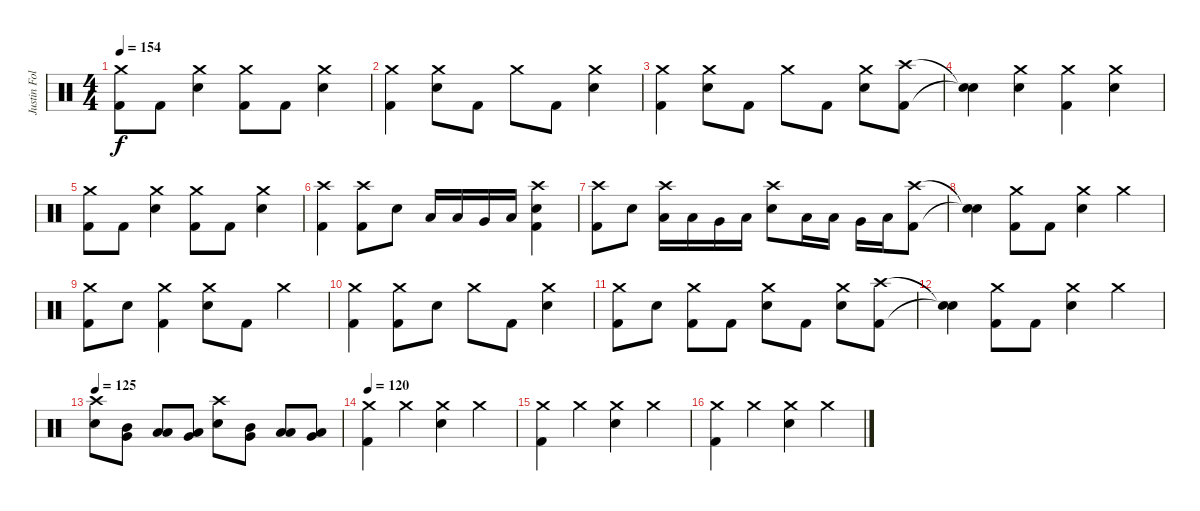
\track ("Justin Foley" "Justin Fol") {instrument percussion}
\staff {score}
\articulation defaults
\ts (4 4)
\tempo 154
\clef neutral
\ks c
("Crash medium (hit)" "Kick (hit) 2").8{dy f} "Kick (hit) 2".8 ("Crash medium (hit)" "Electric Snare (hit)").4 ("Crash medium (hit)" "Kick (hit) 2").8 "Kick (hit) 2".8 ("Crash medium (hit)" "Electric Snare (hit)").4 |
("Crash medium (hit)" "Kick (hit) 2").4 ("Crash medium (hit)" "Electric Snare (hit)").8 "Kick (hit) 2".8 "Crash medium (hit)".8 "Kick (hit) 2".8 ("Crash medium (hit)" "Electric Snare (hit)").4 |
("Crash medium (hit)" "Kick (hit) 2").4 ("Crash medium (hit)" "Electric Snare (hit)").8 "Kick (hit) 2".8 "Crash medium (hit)".8 "Kick (hit) 2".8 ("Crash medium (hit)" "Electric Snare (hit)").8 ("Crash high (hit)" "Kick (hit) 2").8 |
("Snare (hit)"{t} "Snare (hit)"{t}).4 ("Crash medium (hit)" "Electric Snare (hit)").4 ("Crash medium (hit)" "Kick (hit) 2").4 ("Crash medium (hit)" "Electric Snare (hit)").4 |
("Crash medium (hit)" "Kick (hit) 2").8 "Kick (hit) 2".8 ("Crash medium (hit)" "Electric Snare (hit)").4 ("Crash medium (hit)" "Kick (hit) 2").8 "Kick (hit) 2".8 ("Crash medium (hit)" "Electric Snare (hit)").4 |
("Crash high (hit)" "Kick (hit) 2").4 ("Crash high (hit)" "Kick (hit) 2").8 "Electric Snare (hit)".8 "Low Tom (hit)".16 "Low Tom (hit)".16 "Very Low Tom (hit)".16 "Low Floor Tom (hit)".16 ("Crash high (hit)" "Electric Snare (hit)" "Kick (hit) 2").4 |
("Crash high (hit)" "Kick (hit) 2").8 "Electric Snare (hit)".8 ("Crash high (hit)" "Low Tom (hit)").16 "Low Tom (hit)".16 "Very Low Tom (hit)".16 "Low Floor Tom (hit)".16 ("Crash high (hit)" "Electric Snare (hit)").8 "Low Tom (hit)".16 "Low Tom (hit)".16 "Very Low Tom (hit)".16 "Low Floor Tom (hit)".16 ("Crash high (hit)" "Kick (hit) 2").8 |
("Snare (hit)"{t} "Snare (hit)"{t}).4 ("Crash medium (hit)" "Kick (hit) 2").8 "Kick (hit) 2".8 ("Crash medium (hit)" "Electric Snare (hit)").4 "Crash medium (hit)".4 |
("Crash medium (hit)" "Kick (hit) 2").8 "Electric Snare (hit)".8 ("Crash medium (hit)" "Kick (hit) 2").4 ("Crash medium (hit)" "Electric Snare (hit)").8 "Kick (hit) 2".8 "Crash medium (hit)".4 |
("Crash medium (hit)" "Kick (hit) 2").4 ("Crash medium (hit)" "Kick (hit) 2").8 "Electric Snare (hit)".8 "Crash medium (hit)".8 "Kick (hit) 2".8 ("Crash medium (hit)" "Electric Snare (hit)").4 |
("Crash medium (hit)" "Kick (hit) 2").8 "Electric Snare (hit)".8 ("Crash medium (hit)" "Kick (hit) 2").8 "Kick (hit) 2".8 ("Crash medium (hit)" "Electric Snare (hit)").8 "Kick (hit) 2".8 ("Crash medium (hit)" "Electric Snare (hit)").8 ("Crash high (hit)" "Kick (hit) 2").8 |
("Snare (hit)"{t} "Snare (hit)"{t}).4 ("Crash medium (hit)" "Kick (hit) 2").8 "Kick (hit) 2".8 ("Crash medium (hit)" "Electric Snare (hit)").4 "Crash medium (hit)".4 |
\tempo 125
("Crash high (hit)" "Electric Snare (hit)").8 ("Mid Tom (hit)" "Very Low Tom (hit)").8 ("Low Tom (hit)" "Low Floor Tom (hit)").8 ("Very Low Tom (hit)" "Low Floor Tom (hit)").8 ("Crash high (hit)" "Electric Snare (hit)").8 ("Mid Tom (hit)" "Very Low Tom (hit)").8 ("Low Tom (hit)" "Low Floor Tom (hit)").8 ("Very Low Tom (hit)" "Low Floor Tom (hit)").8 |
\tempo 120
("Crash medium (hit)" "Kick (hit) 2").4 "Crash medium (hit)".4 ("Crash medium (hit)" "Electric Snare (hit)").4 "Crash medium (hit)".4 |
("Crash medium (hit)" "Kick (hit) 2").4 "Crash medium (hit)".4 ("Crash medium (hit)" "Electric Snare (hit)").4 "Crash medium (hit)".4 |
("Crash medium (hit)" "Kick (hit) 2").4 "Crash medium (hit)".4 ("Crash medium (hit)" "Electric Snare (hit)").4 "Crash medium (hit)".4
